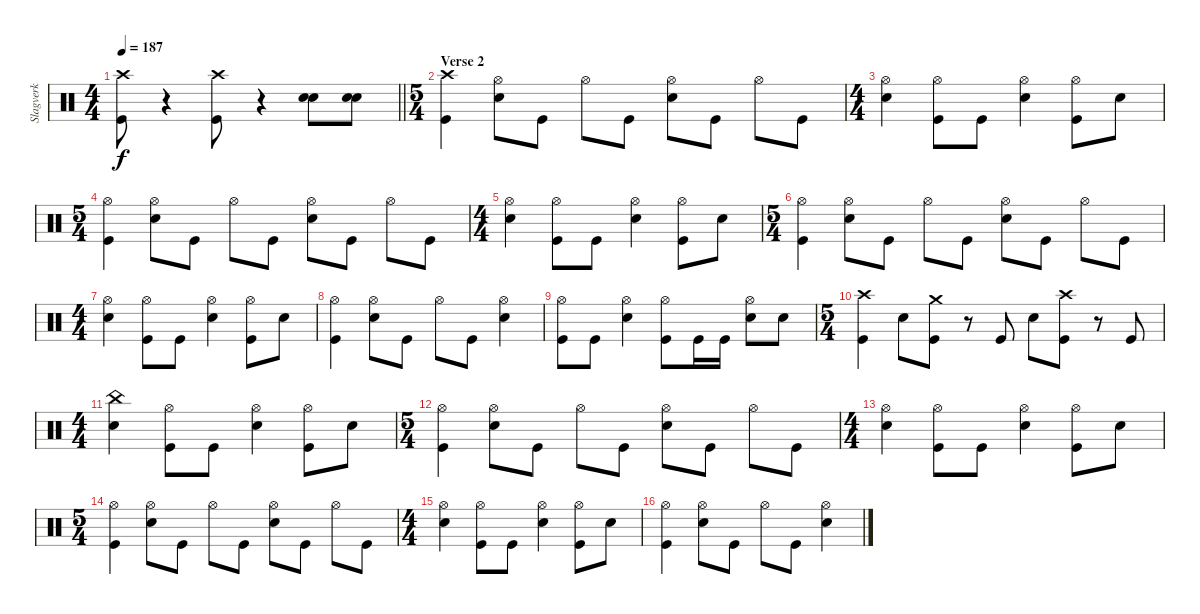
\track ("Slagverk" "Slagverk") {instrument percussion}
\staff {score}
\articulation defaults
\ts (4 4)
\tempo 187
\clef neutral
\barLineRight lightlight
\ks c
("Crash high (hit)" "Kick (hit)").8{dy f} r.4 ("Crash high (hit)" "Kick (hit)").8 r.4 ("Electric Snare (hit)" "Electric Snare (hit)").8 ("Electric Snare (hit)" "Electric Snare (hit)").8 |
\ts (5 4)
\section ("" "Verse 2")
("Crash high (hit)" "Kick (hit)").4 ("Hi-Hat (open)" "Electric Snare (hit)").8 "Kick (hit)".8 "Hi-Hat (open)".8 "Kick (hit)".8 ("Hi-Hat (open)" "Electric Snare (hit)").8 "Kick (hit)".8 "Hi-Hat (open)".8 "Kick (hit)".8 |
\ts (4 4)
("Hi-Hat (open)" "Electric Snare (hit)").4 ("Hi-Hat (open)" "Kick (hit)").8 "Kick (hit)".8 ("Hi-Hat (open)" "Electric Snare (hit)").4 ("Hi-Hat (open)" "Kick (hit)").8 "Electric Snare (hit)".8 |
\ts (5 4)
("Hi-Hat (open)" "Kick (hit)").4 ("Hi-Hat (open)" "Electric Snare (hit)").8 "Kick (hit)".8 "Hi-Hat (open)".8 "Kick (hit)".8 ("Hi-Hat (open)" "Electric Snare (hit)").8 "Kick (hit)".8 "Hi-Hat (open)".8 "Kick (hit)".8 |
\ts (4 4)
("Hi-Hat (open)" "Electric Snare (hit)").4 ("Hi-Hat (open)" "Kick (hit)").8 "Kick (hit)".8 ("Hi-Hat (open)" "Electric Snare (hit)").4 ("Hi-Hat (open)" "Kick (hit)").8 "Electric Snare (hit)".8 |
\ts (5 4)
("Hi-Hat (open)" "Kick (hit)").4 ("Hi-Hat (open)" "Electric Snare (hit)").8 "Kick (hit)".8 "Hi-Hat (open)".8 "Kick (hit)".8 ("Hi-Hat (open)" "Electric Snare (hit)").8 "Kick (hit)".8 "Hi-Hat (open)".8 "Kick (hit)".8 |
\ts (4 4)
("Hi-Hat (open)" "Electric Snare (hit)").4 ("Hi-Hat (open)" "Kick (hit)").8 "Kick (hit)".8 ("Hi-Hat (open)" "Electric Snare (hit)").4 ("Hi-Hat (open)" "Kick (hit)").8 "Electric Snare (hit)".8 |
("Hi-Hat (open)" "Kick (hit)").4 ("Hi-Hat (open)" "Electric Snare (hit)").8 "Kick (hit)".8 "Hi-Hat (open)".8 "Kick (hit)".8 ("Hi-Hat (open)" "Electric Snare (hit)").4 |
("Hi-Hat (open)" "Kick (hit)").8 "Kick (hit)".8 ("Hi-Hat (open)" "Electric Snare (hit)").4 ("Hi-Hat (open)" "Kick (hit)").8 "Kick (hit)".16 "Kick (hit)".16 ("Hi-Hat (open)" "Electric Snare (hit)").8 "Electric Snare (hit)".8 |
\ts (5 4)
("Crash high (hit)" "Kick (hit)").4 "Electric Snare (hit)".8 ("Crash medium (hit)" "Kick (hit)").8 r.8 "Kick (hit)".8 "Electric Snare (hit)".8 ("Crash high (hit)" "Kick (hit)").8 r.8 "Kick (hit)".8 |
\ts (4 4)
("China (hit)" "Electric Snare (hit)").4 ("Hi-Hat (open)" "Kick (hit)").8 "Kick (hit)".8 ("Hi-Hat (open)" "Electric Snare (hit)").4 ("Hi-Hat (open)" "Kick (hit)").8 "Electric Snare (hit)".8 |
\ts (5 4)
("Hi-Hat (open)" "Kick (hit)").4 ("Hi-Hat (open)" "Electric Snare (hit)").8 "Kick (hit)".8 "Hi-Hat (open)".8 "Kick (hit)".8 ("Hi-Hat (open)" "Electric Snare (hit)").8 "Kick (hit)".8 "Hi-Hat (open)".8 "Kick (hit)".8 |
\ts (4 4)
("Hi-Hat (open)" "Electric Snare (hit)").4 ("Hi-Hat (open)" "Kick (hit)").8 "Kick (hit)".8 ("Hi-Hat (open)" "Electric Snare (hit)").4 ("Hi-Hat (open)" "Kick (hit)").8 "Electric Snare (hit)".8 |
\ts (5 4)
("Hi-Hat (open)" "Kick (hit)").4 ("Hi-Hat (open)" "Electric Snare (hit)").8 "Kick (hit)".8 "Hi-Hat (open)".8 "Kick (hit)".8 ("Hi-Hat (open)" "Electric Snare (hit)").8 "Kick (hit)".8 "Hi-Hat (open)".8 "Kick (hit)".8 |
\ts (4 4)
("Hi-Hat (open)" "Electric Snare (hit)").4 ("Hi-Hat (open)" "Kick (hit)").8 "Kick (hit)".8 ("Hi-Hat (open)" "Electric Snare (hit)").4 ("Hi-Hat (open)" "Kick (hit)").8 "Electric Snare (hit)".8 |
("Hi-Hat (open)" "Kick (hit)").4 ("Hi-Hat (open)" "Electric Snare (hit)").8 "Kick (hit)".8 "Hi-Hat (open)".8 "Kick (hit)".8 ("Hi-Hat (open)" "Electric Snare (hit)").4
